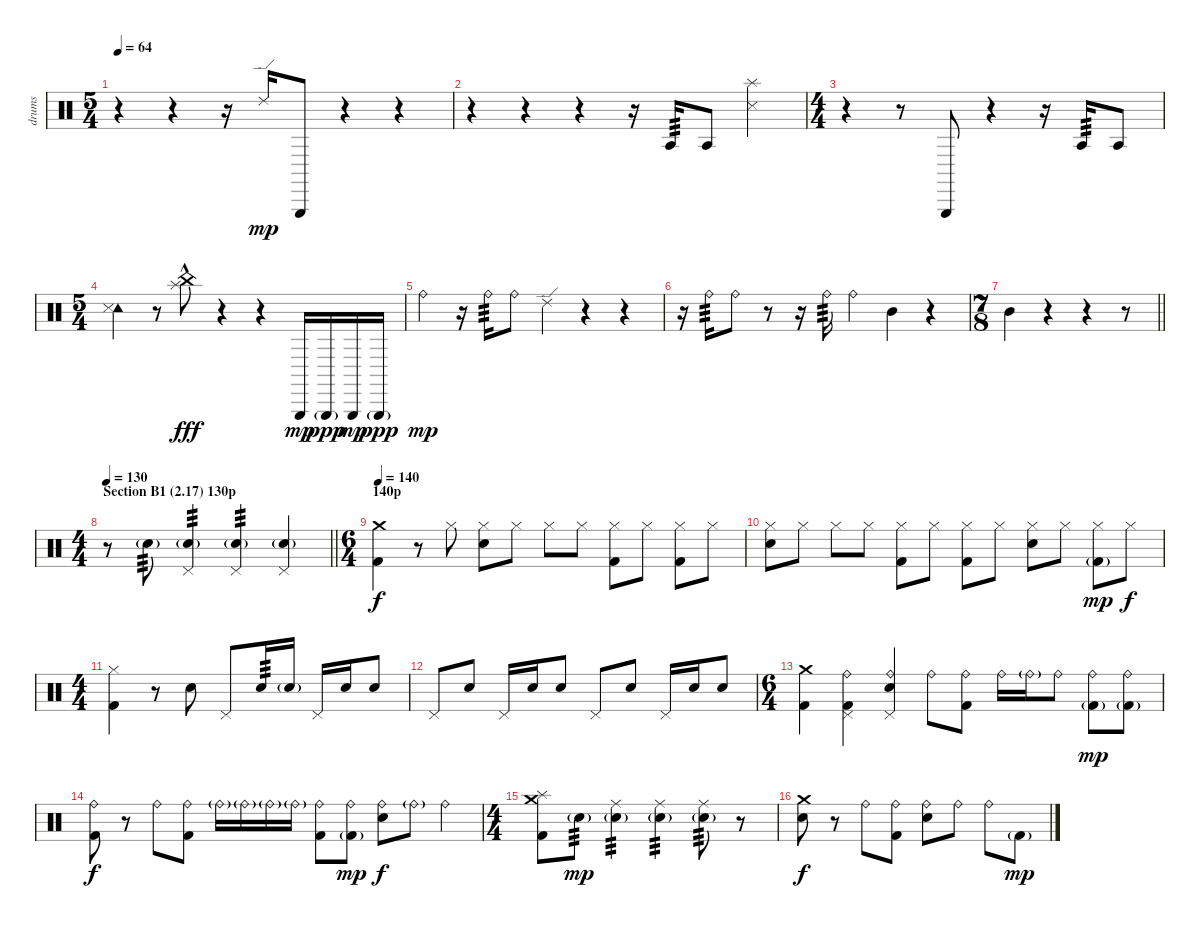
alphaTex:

\track ("drums" "drums") {instrument percussion}
\staff {score}
\articulation defaults
\ts (5 4)
\tempo 64
\clef neutral
\ks c
r.4{dy mp} r.4 r.16 "Ride (edge) 2".16 "Triangle (hit)".8 r.4 r.4 |
r.4 r.4 r.4 r.16 "Agogo tow (hit)".16{tp 3} "Agogo tow (hit)".8 ("Splash (hit)" "Snare (side stick) 3").4 |
\ts (4 4)
r.4 r.8 "Triangle (hit)".8 r.4 r.16 "Agogo tow (hit)".16{tp 3} "Agogo tow (hit)".8 |
\ts (5 4)
("Tambourine (hit)" "Snare (side stick) 3").4 r.8 ("Splash (hit)"{hac} "China (hit)"{hac}).8{dy fff} r.4 r.4 "Triangle (hit)".16{dy mp} "Triangle (hit)"{g}.16{dy ppp} "Triangle (hit)".16{dy mp} "Triangle (hit)"{g}.16{dy ppp} |
"Ride (bell)".4{dy mp} r.16 "Ride (bell)".16{tp 3} "Ride (bell)".8 "Ride (edge) 2".4 r.4 r.4 |
r.16 "Ride (bell)".16{tp 3} "Ride (bell)".8 r.8 r.16 "Ride (bell)".16{tp 3} "Ride (bell)".4 "Mid Tom (hit)".4 r.4 |
\ts (7 8)
\barLineRight lightlight "Mid Tom (hit)".4
r.4 r.4 r.8 |
\ts (4 4)
\section ("" "Section B1 (2.17) 130p")
\tempo 130
\barLineRight lightlight
r.8 "Electric Snare (hit)"{g}.8{tp 3} ("Pedal Hi-Hat (hit)" "Electric Snare (hit)"{g}).4{tp 3} ("Pedal Hi-Hat (hit)" "Electric Snare (hit)"{g}).4{tp 3} ("Pedal Hi-Hat (hit)" "Electric Snare (hit)"{g}).4 |
\ts (6 4)
\section ("" "140p")
\tempo 140
("Crash medium (hit)" "Kick (hit) 2").4{dy f} r.8 "Hi-Hat (closed)".8 ("Hi-Hat (closed)" "Electric Snare (hit)").8 "Hi-Hat (closed)".8 "Hi-Hat (closed)".8 "Hi-Hat (closed)".8 ("Hi-Hat (closed)" "Kick (hit) 2").8 "Hi-Hat (closed)".8 ("Hi-Hat (closed)" "Kick (hit) 2").8 "Hi-Hat (closed)".8 |
("Hi-Hat (closed)" "Electric Snare (hit)").8 "Hi-Hat (closed)".8 "Hi-Hat (closed)".8 "Hi-Hat (closed)".8 ("Hi-Hat (closed)" "Kick (hit) 2").8 "Hi-Hat (closed)".8 ("Hi-Hat (closed)" "Kick (hit) 2").8 "Hi-Hat (closed)".8 ("Hi-Hat (closed)" "Electric Snare (hit)").8 "Hi-Hat (closed)".8 ("Hi-Hat (closed)" "Kick (hit) 2"{g}).8{dy mp} "Hi-Hat (closed)".8{dy f} |
\ts (4 4)
("Hi-Hat (closed)" "Kick (hit) 2").4 r.8 "Electric Snare (hit)".8 "Pedal Hi-Hat (hit)".8 "Electric Snare (hit)".16{tp 3} "Electric Snare (hit)"{g}.16 "Pedal Hi-Hat (hit)".16 "Electric Snare (hit)".16 "Electric Snare (hit)".8 |
"Pedal Hi-Hat (hit)".8 "Electric Snare (hit)".8 "Pedal Hi-Hat (hit)".16 "Electric Snare (hit)".16 "Electric Snare (hit)".8 "Pedal Hi-Hat (hit)".8 "Electric Snare (hit)".8 "Pedal Hi-Hat (hit)".16 "Electric Snare (hit)".16 "Electric Snare (hit)".8 |
\ts (6 4)
("Crash medium (hit)" "Kick (hit) 2").4 ("Ride (bell)" "Pedal Hi-Hat (hit)" "Kick (hit) 2").4 ("Ride (bell)" "Pedal Hi-Hat (hit)" "Electric Snare (hit)").4 "Ride (bell)".8 ("Ride (bell)" "Kick (hit) 2").8 "Ride (bell)".16 "Ride (bell)"{g}.16 "Ride (bell)".8 ("Ride (bell)" "Kick (hit) 2"{g}).8{dy mp} ("Ride (bell)" "Kick (hit) 2"{g}).8 |
("Ride (bell)" "Kick (hit) 2").8{dy f} r.8 "Ride (bell)".8 ("Ride (bell)" "Kick (hit) 2").8 "Ride (bell)"{g}.16 "Ride (bell)"{g}.16 "Ride (bell)"{g}.16 "Ride (bell)"{g}.16 ("Ride (bell)" "Kick (hit) 2").8 ("Ride (bell)" "Kick (hit) 2"{g}).8{dy mp} ("Ride (bell)" "Electric Snare (hit)").8{dy f} "Ride (bell)"{g}.8 "Ride (bell)".4 |
\ts (4 4)
("Splash (hit)" "Crash medium (hit)" "Kick (hit) 2").8 "Electric Snare (hit)"{g}.8{tp 3 dy mp} ("Ride (middle)" "Electric Snare (hit)"{g}).4{tp 3} ("Ride (middle)" "Electric Snare (hit)"{g}).4{tp 3} ("Ride (middle)" "Electric Snare (hit)"{g}).8{tp 3} r.8 |
("Crash medium (hit)" "Electric Snare (hit)").8{dy f} r.8 "Ride (bell)".8 ("Ride (bell)" "Kick (hit) 2").8 ("Ride (bell)" "Electric Snare (hit)").8 "Ride (bell)".8 "Ride (bell)".8 "Kick (hit) 2"{g}.8{dy mp}
